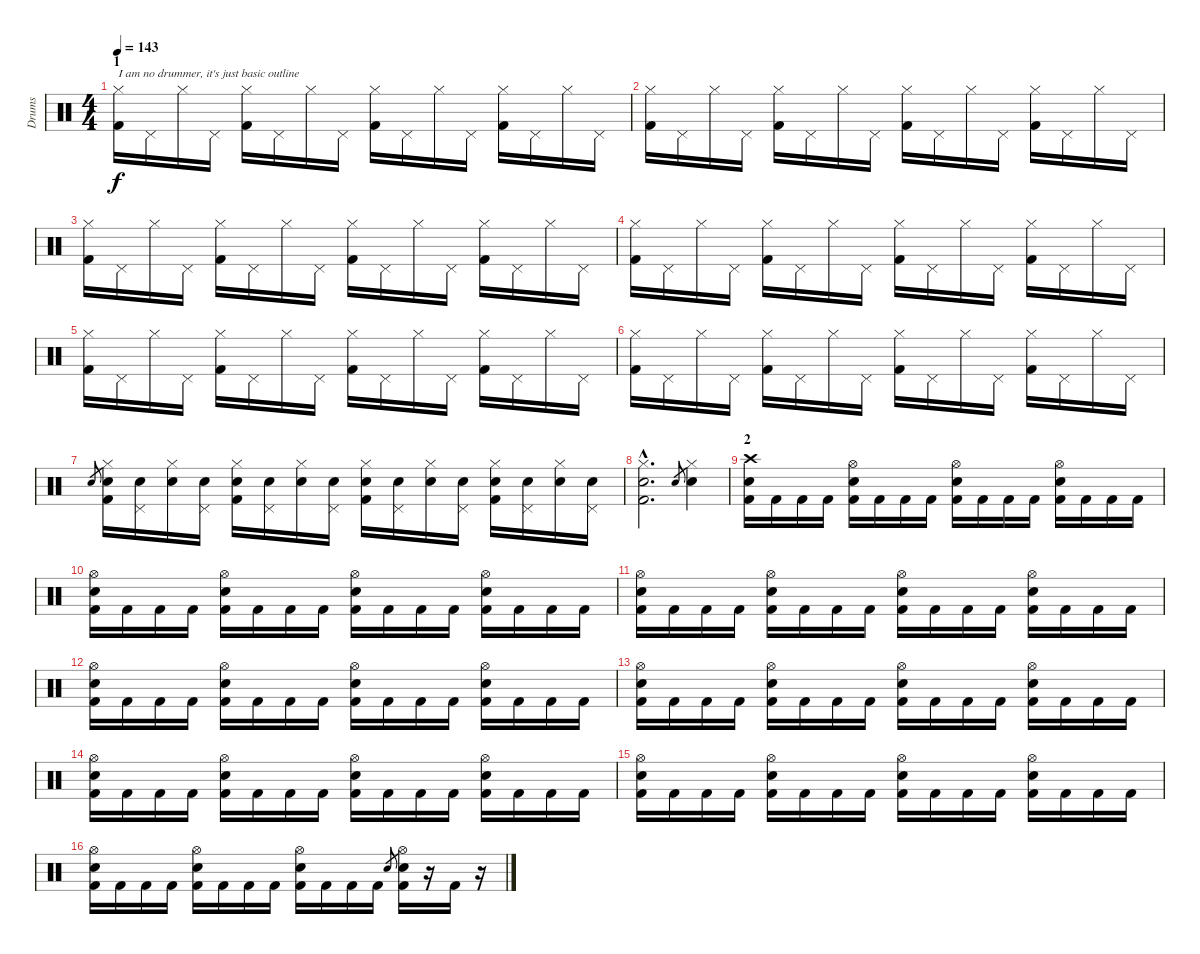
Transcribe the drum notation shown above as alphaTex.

\track ("Drums" "Drums") {instrument percussion}
\staff {score}
\articulation defaults
\ts (4 4)
\section ("" "1")
\tempo 143
\clef neutral
\ks c
("Hi-Hat (closed)" "Kick (hit) 2").16{txt "I am no drummer, it's just basic outline" dy f} "Pedal Hi-Hat (hit)".16 "Hi-Hat (closed)".16 "Pedal Hi-Hat (hit)".16 ("Hi-Hat (closed)" "Kick (hit) 2").16 "Pedal Hi-Hat (hit)".16 "Hi-Hat (closed)".16 "Pedal Hi-Hat (hit)".16 ("Hi-Hat (closed)" "Kick (hit) 2").16 "Pedal Hi-Hat (hit)".16 "Hi-Hat (closed)".16 "Pedal Hi-Hat (hit)".16 ("Hi-Hat (closed)" "Kick (hit) 2").16 "Pedal Hi-Hat (hit)".16 "Hi-Hat (closed)".16 "Pedal Hi-Hat (hit)".16 |
("Hi-Hat (closed)" "Kick (hit) 2").16 "Pedal Hi-Hat (hit)".16 "Hi-Hat (closed)".16 "Pedal Hi-Hat (hit)".16 ("Hi-Hat (closed)" "Kick (hit) 2").16 "Pedal Hi-Hat (hit)".16 "Hi-Hat (closed)".16 "Pedal Hi-Hat (hit)".16 ("Hi-Hat (closed)" "Kick (hit) 2").16 "Pedal Hi-Hat (hit)".16 "Hi-Hat (closed)".16 "Pedal Hi-Hat (hit)".16 ("Hi-Hat (closed)" "Kick (hit) 2").16 "Pedal Hi-Hat (hit)".16 "Hi-Hat (closed)".16 "Pedal Hi-Hat (hit)".16 |
("Hi-Hat (closed)" "Kick (hit) 2").16 "Pedal Hi-Hat (hit)".16 "Hi-Hat (closed)".16 "Pedal Hi-Hat (hit)".16 ("Hi-Hat (closed)" "Kick (hit) 2").16 "Pedal Hi-Hat (hit)".16 "Hi-Hat (closed)".16 "Pedal Hi-Hat (hit)".16 ("Hi-Hat (closed)" "Kick (hit) 2").16 "Pedal Hi-Hat (hit)".16 "Hi-Hat (closed)".16 "Pedal Hi-Hat (hit)".16 ("Hi-Hat (closed)" "Kick (hit) 2").16 "Pedal Hi-Hat (hit)".16 "Hi-Hat (closed)".16 "Pedal Hi-Hat (hit)".16 |
("Hi-Hat (closed)" "Kick (hit) 2").16 "Pedal Hi-Hat (hit)".16 "Hi-Hat (closed)".16 "Pedal Hi-Hat (hit)".16 ("Hi-Hat (closed)" "Kick (hit) 2").16 "Pedal Hi-Hat (hit)".16 "Hi-Hat (closed)".16 "Pedal Hi-Hat (hit)".16 ("Hi-Hat (closed)" "Kick (hit) 2").16 "Pedal Hi-Hat (hit)".16 "Hi-Hat (closed)".16 "Pedal Hi-Hat (hit)".16 ("Hi-Hat (closed)" "Kick (hit) 2").16 "Pedal Hi-Hat (hit)".16 "Hi-Hat (closed)".16 "Pedal Hi-Hat (hit)".16 |
("Hi-Hat (closed)" "Kick (hit) 2").16 "Pedal Hi-Hat (hit)".16 "Hi-Hat (closed)".16 "Pedal Hi-Hat (hit)".16 ("Hi-Hat (closed)" "Kick (hit) 2").16 "Pedal Hi-Hat (hit)".16 "Hi-Hat (closed)".16 "Pedal Hi-Hat (hit)".16 ("Hi-Hat (closed)" "Kick (hit) 2").16 "Pedal Hi-Hat (hit)".16 "Hi-Hat (closed)".16 "Pedal Hi-Hat (hit)".16 ("Hi-Hat (closed)" "Kick (hit) 2").16 "Pedal Hi-Hat (hit)".16 "Hi-Hat (closed)".16 "Pedal Hi-Hat (hit)".16 |
("Hi-Hat (closed)" "Kick (hit) 2").16 "Pedal Hi-Hat (hit)".16 "Hi-Hat (closed)".16 "Pedal Hi-Hat (hit)".16 ("Hi-Hat (closed)" "Kick (hit) 2").16 "Pedal Hi-Hat (hit)".16 "Hi-Hat (closed)".16 "Pedal Hi-Hat (hit)".16 ("Hi-Hat (closed)" "Kick (hit) 2").16 "Pedal Hi-Hat (hit)".16 "Hi-Hat (closed)".16 "Pedal Hi-Hat (hit)".16 ("Hi-Hat (closed)" "Kick (hit) 2").16 "Pedal Hi-Hat (hit)".16 "Hi-Hat (closed)".16 "Pedal Hi-Hat (hit)".16 |
"Electric Snare (hit)".8{gr} ("Hi-Hat (closed)" "Kick (hit) 2" "Electric Snare (hit)").16 ("Pedal Hi-Hat (hit)" "Electric Snare (hit)").16 ("Hi-Hat (closed)" "Electric Snare (hit)").16 ("Pedal Hi-Hat (hit)" "Electric Snare (hit)").16 ("Hi-Hat (closed)" "Kick (hit) 2" "Electric Snare (hit)").16 ("Pedal Hi-Hat (hit)" "Electric Snare (hit)").16 ("Hi-Hat (closed)" "Electric Snare (hit)").16 ("Pedal Hi-Hat (hit)" "Electric Snare (hit)").16 ("Hi-Hat (closed)" "Kick (hit) 2" "Electric Snare (hit)").16 ("Pedal Hi-Hat (hit)" "Electric Snare (hit)").16 ("Hi-Hat (closed)" "Electric Snare (hit)").16 ("Pedal Hi-Hat (hit)" "Electric Snare (hit)").16 ("Hi-Hat (closed)" "Kick (hit) 2" "Electric Snare (hit)").16 ("Pedal Hi-Hat (hit)" "Electric Snare (hit)").16 ("Hi-Hat (closed)" "Electric Snare (hit)").16 ("Pedal Hi-Hat (hit)" "Electric Snare (hit)").16 |
("Hi-Hat (closed)"{hac} "Kick (hit) 2"{hac} "Electric Snare (hit)"{hac}).2{d} "Electric Snare (hit)".8{gr} ("Hi-Hat (closed)" "Electric Snare (hit)").4 |
\section ("" "2")
("Crash high (hit)" "Kick (hit) 2" "Electric Snare (hit)").16 "Kick (hit) 2".16 "Kick (hit) 2".16 "Kick (hit) 2".16 ("Hi-Hat (open)" "Kick (hit) 2" "Electric Snare (hit)").16 "Kick (hit) 2".16 "Kick (hit) 2".16 "Kick (hit) 2".16 ("Hi-Hat (open)" "Kick (hit) 2" "Electric Snare (hit)").16 "Kick (hit) 2".16 "Kick (hit) 2".16 "Kick (hit) 2".16 ("Hi-Hat (open)" "Kick (hit) 2" "Electric Snare (hit)").16 "Kick (hit) 2".16 "Kick (hit) 2".16 "Kick (hit) 2".16 |
("Hi-Hat (open)" "Kick (hit) 2" "Electric Snare (hit)").16 "Kick (hit) 2".16 "Kick (hit) 2".16 "Kick (hit) 2".16 ("Hi-Hat (open)" "Kick (hit) 2" "Electric Snare (hit)").16 "Kick (hit) 2".16 "Kick (hit) 2".16 "Kick (hit) 2".16 ("Hi-Hat (open)" "Kick (hit) 2" "Electric Snare (hit)").16 "Kick (hit) 2".16 "Kick (hit) 2".16 "Kick (hit) 2".16 ("Hi-Hat (open)" "Kick (hit) 2" "Electric Snare (hit)").16 "Kick (hit) 2".16 "Kick (hit) 2".16 "Kick (hit) 2".16 |
("Hi-Hat (open)" "Kick (hit) 2" "Electric Snare (hit)").16 "Kick (hit) 2".16 "Kick (hit) 2".16 "Kick (hit) 2".16 ("Hi-Hat (open)" "Kick (hit) 2" "Electric Snare (hit)").16 "Kick (hit) 2".16 "Kick (hit) 2".16 "Kick (hit) 2".16 ("Hi-Hat (open)" "Kick (hit) 2" "Electric Snare (hit)").16 "Kick (hit) 2".16 "Kick (hit) 2".16 "Kick (hit) 2".16 ("Hi-Hat (open)" "Kick (hit) 2" "Electric Snare (hit)").16 "Kick (hit) 2".16 "Kick (hit) 2".16 "Kick (hit) 2".16 |
("Hi-Hat (open)" "Kick (hit) 2" "Electric Snare (hit)").16 "Kick (hit) 2".16 "Kick (hit) 2".16 "Kick (hit) 2".16 ("Hi-Hat (open)" "Kick (hit) 2" "Electric Snare (hit)").16 "Kick (hit) 2".16 "Kick (hit) 2".16 "Kick (hit) 2".16 ("Hi-Hat (open)" "Kick (hit) 2" "Electric Snare (hit)").16 "Kick (hit) 2".16 "Kick (hit) 2".16 "Kick (hit) 2".16 ("Hi-Hat (open)" "Kick (hit) 2" "Electric Snare (hit)").16 "Kick (hit) 2".16 "Kick (hit) 2".16 "Kick (hit) 2".16 |
("Hi-Hat (open)" "Kick (hit) 2" "Electric Snare (hit)").16 "Kick (hit) 2".16 "Kick (hit) 2".16 "Kick (hit) 2".16 ("Hi-Hat (open)" "Kick (hit) 2" "Electric Snare (hit)").16 "Kick (hit) 2".16 "Kick (hit) 2".16 "Kick (hit) 2".16 ("Hi-Hat (open)" "Kick (hit) 2" "Electric Snare (hit)").16 "Kick (hit) 2".16 "Kick (hit) 2".16 "Kick (hit) 2".16 ("Hi-Hat (open)" "Kick (hit) 2" "Electric Snare (hit)").16 "Kick (hit) 2".16 "Kick (hit) 2".16 "Kick (hit) 2".16 |
("Hi-Hat (open)" "Kick (hit) 2" "Electric Snare (hit)").16 "Kick (hit) 2".16 "Kick (hit) 2".16 "Kick (hit) 2".16 ("Hi-Hat (open)" "Kick (hit) 2" "Electric Snare (hit)").16 "Kick (hit) 2".16 "Kick (hit) 2".16 "Kick (hit) 2".16 ("Hi-Hat (open)" "Kick (hit) 2" "Electric Snare (hit)").16 "Kick (hit) 2".16 "Kick (hit) 2".16 "Kick (hit) 2".16 ("Hi-Hat (open)" "Kick (hit) 2" "Electric Snare (hit)").16 "Kick (hit) 2".16 "Kick (hit) 2".16 "Kick (hit) 2".16 |
("Hi-Hat (open)" "Kick (hit) 2" "Electric Snare (hit)").16 "Kick (hit) 2".16 "Kick (hit) 2".16 "Kick (hit) 2".16 ("Hi-Hat (open)" "Kick (hit) 2" "Electric Snare (hit)").16 "Kick (hit) 2".16 "Kick (hit) 2".16 "Kick (hit) 2".16 ("Hi-Hat (open)" "Kick (hit) 2" "Electric Snare (hit)").16 "Kick (hit) 2".16 "Kick (hit) 2".16 "Kick (hit) 2".16 ("Hi-Hat (open)" "Kick (hit) 2" "Electric Snare (hit)").16 "Kick (hit) 2".16 "Kick (hit) 2".16 "Kick (hit) 2".16 |
("Hi-Hat (open)" "Kick (hit) 2" "Electric Snare (hit)").16 "Kick (hit) 2".16 "Kick (hit) 2".16 "Kick (hit) 2".16 ("Hi-Hat (open)" "Kick (hit) 2" "Electric Snare (hit)").16 "Kick (hit) 2".16 "Kick (hit) 2".16 "Kick (hit) 2".16 ("Hi-Hat (open)" "Kick (hit) 2" "Electric Snare (hit)").16 "Kick (hit) 2".16 "Kick (hit) 2".16 "Kick (hit) 2".16 "Electric Snare (hit)".8{gr} ("Hi-Hat (open)" "Kick (hit) 2" "Electric Snare (hit)").16 r.16 "Kick (hit) 2".16 r.16
